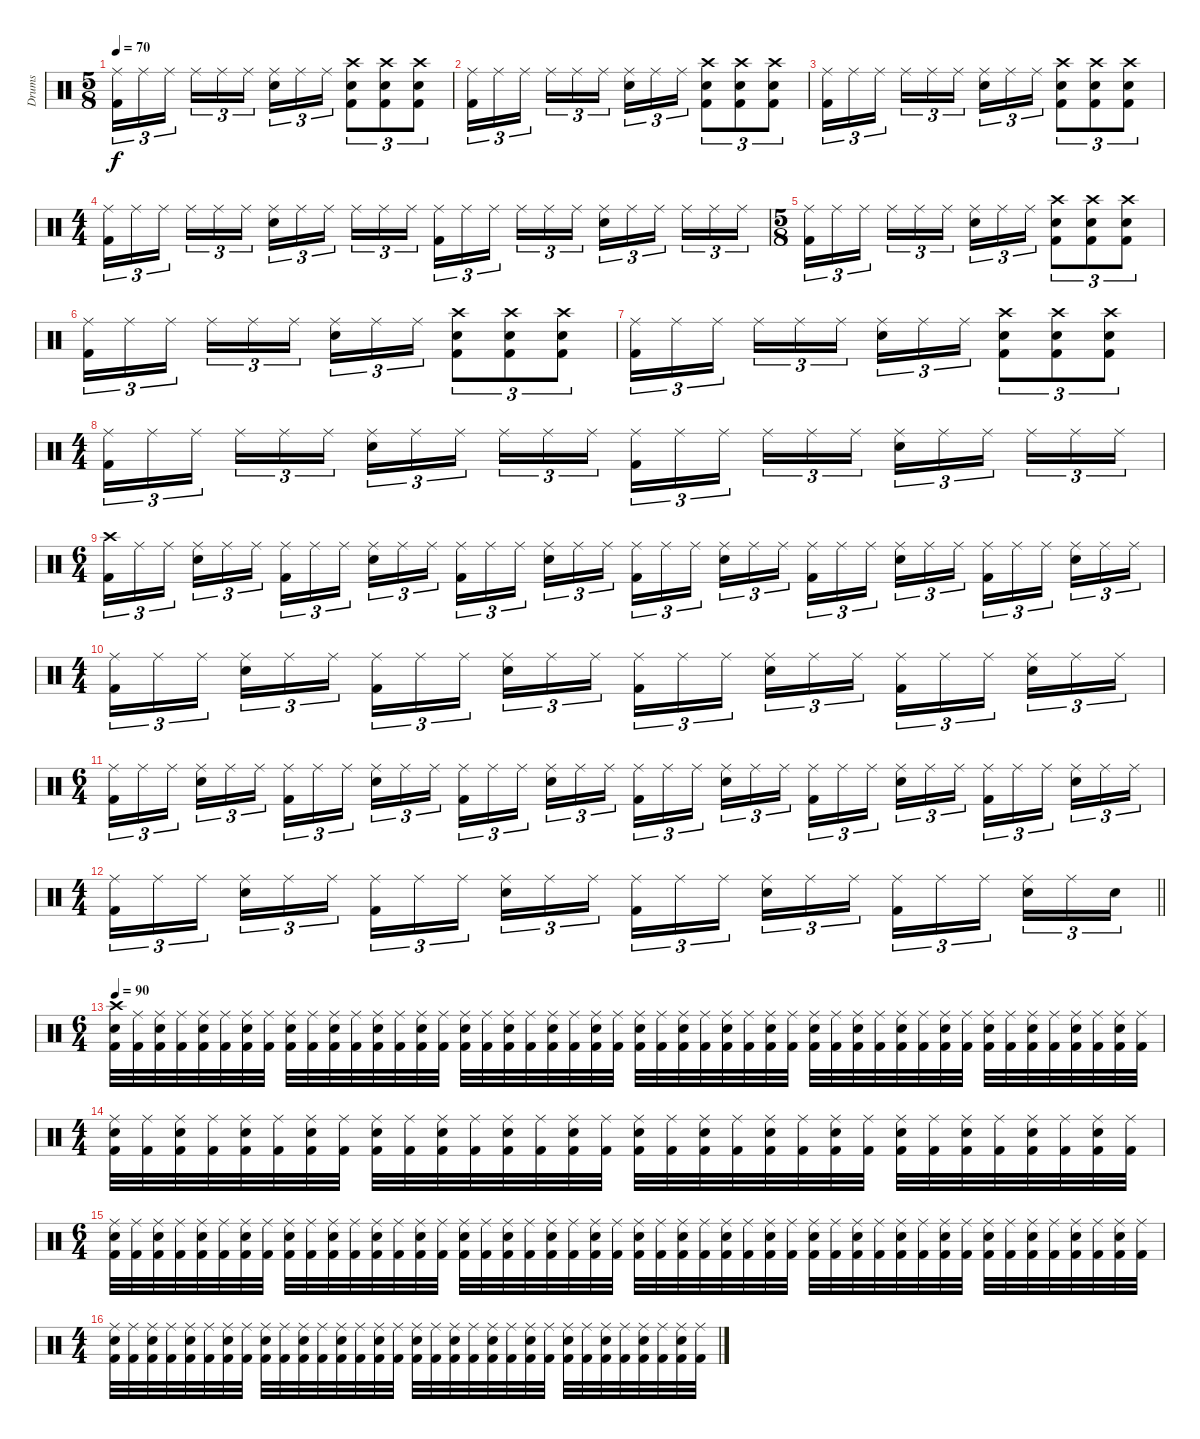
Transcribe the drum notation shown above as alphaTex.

\track ("Drums" "Drums") {instrument percussion}
\staff {score}
\articulation defaults
\ts (5 8)
\tempo 70
\clef neutral
\ks c
("Ride (middle)" "Kick (hit) 2").16{tu (3 2) dy f} "Ride (middle)".16{tu (3 2)} "Ride (middle)".16{tu (3 2)} "Ride (middle)".16{tu (3 2)} "Ride (middle)".16{tu (3 2)} "Ride (middle)".16{tu (3 2)} ("Ride (middle)" "Electric Snare (hit)").16{tu (3 2)} "Ride (middle)".16{tu (3 2)} "Ride (middle)".16{tu (3 2)} ("Crash high (hit)" "Electric Snare (hit)" "Kick (hit) 2").8{tu (3 2)} ("Crash high (hit)" "Electric Snare (hit)" "Kick (hit) 2").8{tu (3 2)} ("Crash high (hit)" "Electric Snare (hit)" "Kick (hit) 2").8{tu (3 2)} |
("Ride (middle)" "Kick (hit) 2").16{tu (3 2)} "Ride (middle)".16{tu (3 2)} "Ride (middle)".16{tu (3 2)} "Ride (middle)".16{tu (3 2)} "Ride (middle)".16{tu (3 2)} "Ride (middle)".16{tu (3 2)} ("Ride (middle)" "Electric Snare (hit)").16{tu (3 2)} "Ride (middle)".16{tu (3 2)} "Ride (middle)".16{tu (3 2)} ("Crash high (hit)" "Electric Snare (hit)" "Kick (hit) 2").8{tu (3 2)} ("Crash high (hit)" "Electric Snare (hit)" "Kick (hit) 2").8{tu (3 2)} ("Crash high (hit)" "Electric Snare (hit)" "Kick (hit) 2").8{tu (3 2)} |
("Ride (middle)" "Kick (hit) 2").16{tu (3 2)} "Ride (middle)".16{tu (3 2)} "Ride (middle)".16{tu (3 2)} "Ride (middle)".16{tu (3 2)} "Ride (middle)".16{tu (3 2)} "Ride (middle)".16{tu (3 2)} ("Ride (middle)" "Electric Snare (hit)").16{tu (3 2)} "Ride (middle)".16{tu (3 2)} "Ride (middle)".16{tu (3 2)} ("Crash high (hit)" "Electric Snare (hit)" "Kick (hit) 2").8{tu (3 2)} ("Crash high (hit)" "Electric Snare (hit)" "Kick (hit) 2").8{tu (3 2)} ("Crash high (hit)" "Electric Snare (hit)" "Kick (hit) 2").8{tu (3 2)} |
\ts (4 4)
("Ride (middle)" "Kick (hit) 2").16{tu (3 2)} "Ride (middle)".16{tu (3 2)} "Ride (middle)".16{tu (3 2)} "Ride (middle)".16{tu (3 2)} "Ride (middle)".16{tu (3 2)} "Ride (middle)".16{tu (3 2)} ("Ride (middle)" "Electric Snare (hit)").16{tu (3 2)} "Ride (middle)".16{tu (3 2)} "Ride (middle)".16{tu (3 2)} "Ride (middle)".16{tu (3 2)} "Ride (middle)".16{tu (3 2)} "Ride (middle)".16{tu (3 2)} ("Ride (middle)" "Kick (hit) 2").16{tu (3 2)} "Ride (middle)".16{tu (3 2)} "Ride (middle)".16{tu (3 2)} "Ride (middle)".16{tu (3 2)} "Ride (middle)".16{tu (3 2)} "Ride (middle)".16{tu (3 2)} ("Ride (middle)" "Electric Snare (hit)").16{tu (3 2)} "Ride (middle)".16{tu (3 2)} "Ride (middle)".16{tu (3 2)} "Ride (middle)".16{tu (3 2)} "Ride (middle)".16{tu (3 2)} "Ride (middle)".16{tu (3 2)} |
\ts (5 8)
("Ride (middle)" "Kick (hit) 2").16{tu (3 2)} "Ride (middle)".16{tu (3 2)} "Ride (middle)".16{tu (3 2)} "Ride (middle)".16{tu (3 2)} "Ride (middle)".16{tu (3 2)} "Ride (middle)".16{tu (3 2)} ("Ride (middle)" "Electric Snare (hit)").16{tu (3 2)} "Ride (middle)".16{tu (3 2)} "Ride (middle)".16{tu (3 2)} ("Crash high (hit)" "Electric Snare (hit)" "Kick (hit) 2").8{tu (3 2)} ("Crash high (hit)" "Electric Snare (hit)" "Kick (hit) 2").8{tu (3 2)} ("Crash high (hit)" "Electric Snare (hit)" "Kick (hit) 2").8{tu (3 2)} |
("Ride (middle)" "Kick (hit) 2").16{tu (3 2)} "Ride (middle)".16{tu (3 2)} "Ride (middle)".16{tu (3 2)} "Ride (middle)".16{tu (3 2)} "Ride (middle)".16{tu (3 2)} "Ride (middle)".16{tu (3 2)} ("Ride (middle)" "Electric Snare (hit)").16{tu (3 2)} "Ride (middle)".16{tu (3 2)} "Ride (middle)".16{tu (3 2)} ("Crash high (hit)" "Electric Snare (hit)" "Kick (hit) 2").8{tu (3 2)} ("Crash high (hit)" "Electric Snare (hit)" "Kick (hit) 2").8{tu (3 2)} ("Crash high (hit)" "Electric Snare (hit)" "Kick (hit) 2").8{tu (3 2)} |
("Ride (middle)" "Kick (hit) 2").16{tu (3 2)} "Ride (middle)".16{tu (3 2)} "Ride (middle)".16{tu (3 2)} "Ride (middle)".16{tu (3 2)} "Ride (middle)".16{tu (3 2)} "Ride (middle)".16{tu (3 2)} ("Ride (middle)" "Electric Snare (hit)").16{tu (3 2)} "Ride (middle)".16{tu (3 2)} "Ride (middle)".16{tu (3 2)} ("Crash high (hit)" "Electric Snare (hit)" "Kick (hit) 2").8{tu (3 2)} ("Crash high (hit)" "Electric Snare (hit)" "Kick (hit) 2").8{tu (3 2)} ("Crash high (hit)" "Electric Snare (hit)" "Kick (hit) 2").8{tu (3 2)} |
\ts (4 4)
("Ride (middle)" "Kick (hit) 2").16{tu (3 2)} "Ride (middle)".16{tu (3 2)} "Ride (middle)".16{tu (3 2)} "Ride (middle)".16{tu (3 2)} "Ride (middle)".16{tu (3 2)} "Ride (middle)".16{tu (3 2)} ("Ride (middle)" "Electric Snare (hit)").16{tu (3 2)} "Ride (middle)".16{tu (3 2)} "Ride (middle)".16{tu (3 2)} "Ride (middle)".16{tu (3 2)} "Ride (middle)".16{tu (3 2)} "Ride (middle)".16{tu (3 2)} ("Ride (middle)" "Kick (hit) 2").16{tu (3 2)} "Ride (middle)".16{tu (3 2)} "Ride (middle)".16{tu (3 2)} "Ride (middle)".16{tu (3 2)} "Ride (middle)".16{tu (3 2)} "Ride (middle)".16{tu (3 2)} ("Ride (middle)" "Electric Snare (hit)").16{tu (3 2)} "Ride (middle)".16{tu (3 2)} "Ride (middle)".16{tu (3 2)} "Ride (middle)".16{tu (3 2)} "Ride (middle)".16{tu (3 2)} "Ride (middle)".16{tu (3 2)} |
\ts (6 4)
("Crash high (hit)" "Kick (hit) 2").16{tu (3 2)} "Ride (middle)".16{tu (3 2)} "Ride (middle)".16{tu (3 2)} ("Ride (middle)" "Electric Snare (hit)").16{tu (3 2)} "Ride (middle)".16{tu (3 2)} "Ride (middle)".16{tu (3 2)} ("Ride (middle)" "Kick (hit) 2").16{tu (3 2)} "Ride (middle)".16{tu (3 2)} "Ride (middle)".16{tu (3 2)} ("Ride (middle)" "Electric Snare (hit)").16{tu (3 2)} "Ride (middle)".16{tu (3 2)} "Ride (middle)".16{tu (3 2)} ("Ride (middle)" "Kick (hit) 2").16{tu (3 2)} "Ride (middle)".16{tu (3 2)} "Ride (middle)".16{tu (3 2)} ("Ride (middle)" "Electric Snare (hit)").16{tu (3 2)} "Ride (middle)".16{tu (3 2)} "Ride (middle)".16{tu (3 2)} ("Ride (middle)" "Kick (hit) 2").16{tu (3 2)} "Ride (middle)".16{tu (3 2)} "Ride (middle)".16{tu (3 2)} ("Ride (middle)" "Electric Snare (hit)").16{tu (3 2)} "Ride (middle)".16{tu (3 2)} "Ride (middle)".16{tu (3 2)} ("Ride (middle)" "Kick (hit) 2").16{tu (3 2)} "Ride (middle)".16{tu (3 2)} "Ride (middle)".16{tu (3 2)} ("Ride (middle)" "Electric Snare (hit)").16{tu (3 2)} "Ride (middle)".16{tu (3 2)} "Ride (middle)".16{tu (3 2)} ("Ride (middle)" "Kick (hit) 2").16{tu (3 2)} "Ride (middle)".16{tu (3 2)} "Ride (middle)".16{tu (3 2)} ("Ride (middle)" "Electric Snare (hit)").16{tu (3 2)} "Ride (middle)".16{tu (3 2)} "Ride (middle)".16{tu (3 2)} |
\ts (4 4)
("Ride (middle)" "Kick (hit) 2").16{tu (3 2)} "Ride (middle)".16{tu (3 2)} "Ride (middle)".16{tu (3 2)} ("Ride (middle)" "Electric Snare (hit)").16{tu (3 2)} "Ride (middle)".16{tu (3 2)} "Ride (middle)".16{tu (3 2)} ("Ride (middle)" "Kick (hit) 2").16{tu (3 2)} "Ride (middle)".16{tu (3 2)} "Ride (middle)".16{tu (3 2)} ("Ride (middle)" "Electric Snare (hit)").16{tu (3 2)} "Ride (middle)".16{tu (3 2)} "Ride (middle)".16{tu (3 2)} ("Ride (middle)" "Kick (hit) 2").16{tu (3 2)} "Ride (middle)".16{tu (3 2)} "Ride (middle)".16{tu (3 2)} ("Ride (middle)" "Electric Snare (hit)").16{tu (3 2)} "Ride (middle)".16{tu (3 2)} "Ride (middle)".16{tu (3 2)} ("Ride (middle)" "Kick (hit) 2").16{tu (3 2)} "Ride (middle)".16{tu (3 2)} "Ride (middle)".16{tu (3 2)} ("Ride (middle)" "Electric Snare (hit)").16{tu (3 2)} "Ride (middle)".16{tu (3 2)} "Ride (middle)".16{tu (3 2)} |
\ts (6 4)
("Ride (middle)" "Kick (hit) 2").16{tu (3 2)} "Ride (middle)".16{tu (3 2)} "Ride (middle)".16{tu (3 2)} ("Ride (middle)" "Electric Snare (hit)").16{tu (3 2)} "Ride (middle)".16{tu (3 2)} "Ride (middle)".16{tu (3 2)} ("Ride (middle)" "Kick (hit) 2").16{tu (3 2)} "Ride (middle)".16{tu (3 2)} "Ride (middle)".16{tu (3 2)} ("Ride (middle)" "Electric Snare (hit)").16{tu (3 2)} "Ride (middle)".16{tu (3 2)} "Ride (middle)".16{tu (3 2)} ("Ride (middle)" "Kick (hit) 2").16{tu (3 2)} "Ride (middle)".16{tu (3 2)} "Ride (middle)".16{tu (3 2)} ("Ride (middle)" "Electric Snare (hit)").16{tu (3 2)} "Ride (middle)".16{tu (3 2)} "Ride (middle)".16{tu (3 2)} ("Ride (middle)" "Kick (hit) 2").16{tu (3 2)} "Ride (middle)".16{tu (3 2)} "Ride (middle)".16{tu (3 2)} ("Ride (middle)" "Electric Snare (hit)").16{tu (3 2)} "Ride (middle)".16{tu (3 2)} "Ride (middle)".16{tu (3 2)} ("Ride (middle)" "Kick (hit) 2").16{tu (3 2)} "Ride (middle)".16{tu (3 2)} "Ride (middle)".16{tu (3 2)} ("Ride (middle)" "Electric Snare (hit)").16{tu (3 2)} "Ride (middle)".16{tu (3 2)} "Ride (middle)".16{tu (3 2)} ("Ride (middle)" "Kick (hit) 2").16{tu (3 2)} "Ride (middle)".16{tu (3 2)} "Ride (middle)".16{tu (3 2)} ("Ride (middle)" "Electric Snare (hit)").16{tu (3 2)} "Ride (middle)".16{tu (3 2)} "Ride (middle)".16{tu (3 2)} |
\ts (4 4)
\barLineRight lightlight
("Ride (middle)" "Kick (hit) 2").16{tu (3 2)} "Ride (middle)".16{tu (3 2)} "Ride (middle)".16{tu (3 2)} ("Ride (middle)" "Electric Snare (hit)").16{tu (3 2)} "Ride (middle)".16{tu (3 2)} "Ride (middle)".16{tu (3 2)} ("Ride (middle)" "Kick (hit) 2").16{tu (3 2)} "Ride (middle)".16{tu (3 2)} "Ride (middle)".16{tu (3 2)} ("Ride (middle)" "Electric Snare (hit)").16{tu (3 2)} "Ride (middle)".16{tu (3 2)} "Ride (middle)".16{tu (3 2)} ("Ride (middle)" "Kick (hit) 2").16{tu (3 2)} "Ride (middle)".16{tu (3 2)} "Ride (middle)".16{tu (3 2)} ("Ride (middle)" "Electric Snare (hit)").16{tu (3 2)} "Ride (middle)".16{tu (3 2)} "Ride (middle)".16{tu (3 2)} ("Ride (middle)" "Kick (hit) 2").16{tu (3 2)} "Ride (middle)".16{tu (3 2)} "Ride (middle)".16{tu (3 2)} ("Ride (middle)" "Electric Snare (hit)").16{tu (3 2)} "Ride (middle)".16{tu (3 2)} "Electric Snare (hit)".16{tu (3 2)} |
\ts (6 4)
\tempo 90
("Crash high (hit)" "Electric Snare (hit)" "Kick (hit) 2").32 ("Ride (middle)" "Kick (hit) 2").32 ("Ride (middle)" "Electric Snare (hit)" "Kick (hit) 2").32 ("Ride (middle)" "Kick (hit) 2").32 ("Ride (middle)" "Electric Snare (hit)" "Kick (hit) 2").32 ("Ride (middle)" "Kick (hit) 2").32 ("Ride (middle)" "Electric Snare (hit)" "Kick (hit) 2").32 ("Ride (middle)" "Kick (hit) 2").32 ("Ride (middle)" "Electric Snare (hit)" "Kick (hit) 2").32 ("Ride (middle)" "Kick (hit) 2").32 ("Ride (middle)" "Electric Snare (hit)" "Kick (hit) 2").32 ("Ride (middle)" "Kick (hit) 2").32 ("Ride (middle)" "Electric Snare (hit)" "Kick (hit) 2").32 ("Ride (middle)" "Kick (hit) 2").32 ("Ride (middle)" "Electric Snare (hit)" "Kick (hit) 2").32 ("Ride (middle)" "Kick (hit) 2").32 ("Ride (middle)" "Electric Snare (hit)" "Kick (hit) 2").32 ("Ride (middle)" "Kick (hit) 2").32 ("Ride (middle)" "Electric Snare (hit)" "Kick (hit) 2").32 ("Ride (middle)" "Kick (hit) 2").32 ("Ride (middle)" "Electric Snare (hit)" "Kick (hit) 2").32 ("Ride (middle)" "Kick (hit) 2").32 ("Ride (middle)" "Electric Snare (hit)" "Kick (hit) 2").32 ("Ride (middle)" "Kick (hit) 2").32 ("Ride (middle)" "Electric Snare (hit)" "Kick (hit) 2").32 ("Ride (middle)" "Kick (hit) 2").32 ("Ride (middle)" "Electric Snare (hit)" "Kick (hit) 2").32 ("Ride (middle)" "Kick (hit) 2").32 ("Ride (middle)" "Electric Snare (hit)" "Kick (hit) 2").32 ("Ride (middle)" "Kick (hit) 2").32 ("Ride (middle)" "Electric Snare (hit)" "Kick (hit) 2").32 ("Ride (middle)" "Kick (hit) 2").32 ("Ride (middle)" "Electric Snare (hit)" "Kick (hit) 2").32 ("Ride (middle)" "Kick (hit) 2").32 ("Ride (middle)" "Electric Snare (hit)" "Kick (hit) 2").32 ("Ride (middle)" "Kick (hit) 2").32 ("Ride (middle)" "Electric Snare (hit)" "Kick (hit) 2").32 ("Ride (middle)" "Kick (hit) 2").32 ("Ride (middle)" "Electric Snare (hit)" "Kick (hit) 2").32 ("Ride (middle)" "Kick (hit) 2").32 ("Ride (middle)" "Electric Snare (hit)" "Kick (hit) 2").32 ("Ride (middle)" "Kick (hit) 2").32 ("Ride (middle)" "Electric Snare (hit)" "Kick (hit) 2").32 ("Ride (middle)" "Kick (hit) 2").32 ("Ride (middle)" "Electric Snare (hit)" "Kick (hit) 2").32 ("Ride (middle)" "Kick (hit) 2").32 ("Ride (middle)" "Electric Snare (hit)" "Kick (hit) 2").32 ("Ride (middle)" "Kick (hit) 2").32 |
\ts (4 4)
("Ride (middle)" "Electric Snare (hit)" "Kick (hit) 2").32 ("Ride (middle)" "Kick (hit) 2").32 ("Ride (middle)" "Electric Snare (hit)" "Kick (hit) 2").32 ("Ride (middle)" "Kick (hit) 2").32 ("Ride (middle)" "Electric Snare (hit)" "Kick (hit) 2").32 ("Ride (middle)" "Kick (hit) 2").32 ("Ride (middle)" "Electric Snare (hit)" "Kick (hit) 2").32 ("Ride (middle)" "Kick (hit) 2").32 ("Ride (middle)" "Electric Snare (hit)" "Kick (hit) 2").32 ("Ride (middle)" "Kick (hit) 2").32 ("Ride (middle)" "Electric Snare (hit)" "Kick (hit) 2").32 ("Ride (middle)" "Kick (hit) 2").32 ("Ride (middle)" "Electric Snare (hit)" "Kick (hit) 2").32 ("Ride (middle)" "Kick (hit) 2").32 ("Ride (middle)" "Electric Snare (hit)" "Kick (hit) 2").32 ("Ride (middle)" "Kick (hit) 2").32 ("Ride (middle)" "Electric Snare (hit)" "Kick (hit) 2").32 ("Ride (middle)" "Kick (hit) 2").32 ("Ride (middle)" "Electric Snare (hit)" "Kick (hit) 2").32 ("Ride (middle)" "Kick (hit) 2").32 ("Ride (middle)" "Electric Snare (hit)" "Kick (hit) 2").32 ("Ride (middle)" "Kick (hit) 2").32 ("Ride (middle)" "Electric Snare (hit)" "Kick (hit) 2").32 ("Ride (middle)" "Kick (hit) 2").32 ("Ride (middle)" "Electric Snare (hit)" "Kick (hit) 2").32 ("Ride (middle)" "Kick (hit) 2").32 ("Ride (middle)" "Electric Snare (hit)" "Kick (hit) 2").32 ("Ride (middle)" "Kick (hit) 2").32 ("Ride (middle)" "Electric Snare (hit)" "Kick (hit) 2").32 ("Ride (middle)" "Kick (hit) 2").32 ("Ride (middle)" "Electric Snare (hit)" "Kick (hit) 2").32 ("Ride (middle)" "Kick (hit) 2").32 |
\ts (6 4)
("Ride (middle)" "Electric Snare (hit)" "Kick (hit) 2").32 ("Ride (middle)" "Kick (hit) 2").32 ("Ride (middle)" "Electric Snare (hit)" "Kick (hit) 2").32 ("Ride (middle)" "Kick (hit) 2").32 ("Ride (middle)" "Electric Snare (hit)" "Kick (hit) 2").32 ("Ride (middle)" "Kick (hit) 2").32 ("Ride (middle)" "Electric Snare (hit)" "Kick (hit) 2").32 ("Ride (middle)" "Kick (hit) 2").32 ("Ride (middle)" "Electric Snare (hit)" "Kick (hit) 2").32 ("Ride (middle)" "Kick (hit) 2").32 ("Ride (middle)" "Electric Snare (hit)" "Kick (hit) 2").32 ("Ride (middle)" "Kick (hit) 2").32 ("Ride (middle)" "Electric Snare (hit)" "Kick (hit) 2").32 ("Ride (middle)" "Kick (hit) 2").32 ("Ride (middle)" "Electric Snare (hit)" "Kick (hit) 2").32 ("Ride (middle)" "Kick (hit) 2").32 ("Ride (middle)" "Electric Snare (hit)" "Kick (hit) 2").32 ("Ride (middle)" "Kick (hit) 2").32 ("Ride (middle)" "Electric Snare (hit)" "Kick (hit) 2").32 ("Ride (middle)" "Kick (hit) 2").32 ("Ride (middle)" "Electric Snare (hit)" "Kick (hit) 2").32 ("Ride (middle)" "Kick (hit) 2").32 ("Ride (middle)" "Electric Snare (hit)" "Kick (hit) 2").32 ("Ride (middle)" "Kick (hit) 2").32 ("Ride (middle)" "Electric Snare (hit)" "Kick (hit) 2").32 ("Ride (middle)" "Kick (hit) 2").32 ("Ride (middle)" "Electric Snare (hit)" "Kick (hit) 2").32 ("Ride (middle)" "Kick (hit) 2").32 ("Ride (middle)" "Electric Snare (hit)" "Kick (hit) 2").32 ("Ride (middle)" "Kick (hit) 2").32 ("Ride (middle)" "Electric Snare (hit)" "Kick (hit) 2").32 ("Ride (middle)" "Kick (hit) 2").32 ("Ride (middle)" "Electric Snare (hit)" "Kick (hit) 2").32 ("Ride (middle)" "Kick (hit) 2").32 ("Ride (middle)" "Electric Snare (hit)" "Kick (hit) 2").32 ("Ride (middle)" "Kick (hit) 2").32 ("Ride (middle)" "Electric Snare (hit)" "Kick (hit) 2").32 ("Ride (middle)" "Kick (hit) 2").32 ("Ride (middle)" "Electric Snare (hit)" "Kick (hit) 2").32 ("Ride (middle)" "Kick (hit) 2").32 ("Ride (middle)" "Electric Snare (hit)" "Kick (hit) 2").32 ("Ride (middle)" "Kick (hit) 2").32 ("Ride (middle)" "Electric Snare (hit)" "Kick (hit) 2").32 ("Ride (middle)" "Kick (hit) 2").32 ("Ride (middle)" "Electric Snare (hit)" "Kick (hit) 2").32 ("Ride (middle)" "Kick (hit) 2").32 ("Ride (middle)" "Electric Snare (hit)" "Kick (hit) 2").32 ("Ride (middle)" "Kick (hit) 2").32 |
\ts (4 4)
("Ride (middle)" "Electric Snare (hit)" "Kick (hit) 2").32 ("Ride (middle)" "Kick (hit) 2").32 ("Ride (middle)" "Electric Snare (hit)" "Kick (hit) 2").32 ("Ride (middle)" "Kick (hit) 2").32 ("Ride (middle)" "Electric Snare (hit)" "Kick (hit) 2").32 ("Ride (middle)" "Kick (hit) 2").32 ("Ride (middle)" "Electric Snare (hit)" "Kick (hit) 2").32 ("Ride (middle)" "Kick (hit) 2").32 ("Ride (middle)" "Electric Snare (hit)" "Kick (hit) 2").32 ("Ride (middle)" "Kick (hit) 2").32 ("Ride (middle)" "Electric Snare (hit)" "Kick (hit) 2").32 ("Ride (middle)" "Kick (hit) 2").32 ("Ride (middle)" "Electric Snare (hit)" "Kick (hit) 2").32 ("Ride (middle)" "Kick (hit) 2").32 ("Ride (middle)" "Electric Snare (hit)" "Kick (hit) 2").32 ("Ride (middle)" "Kick (hit) 2").32 ("Ride (middle)" "Electric Snare (hit)" "Kick (hit) 2").32 ("Ride (middle)" "Kick (hit) 2").32 ("Ride (middle)" "Electric Snare (hit)" "Kick (hit) 2").32 ("Ride (middle)" "Kick (hit) 2").32 ("Ride (middle)" "Electric Snare (hit)" "Kick (hit) 2").32 ("Ride (middle)" "Kick (hit) 2").32 ("Ride (middle)" "Electric Snare (hit)" "Kick (hit) 2").32 ("Ride (middle)" "Kick (hit) 2").32 ("Ride (middle)" "Electric Snare (hit)" "Kick (hit) 2").32 ("Ride (middle)" "Kick (hit) 2").32 ("Ride (middle)" "Electric Snare (hit)" "Kick (hit) 2").32 ("Ride (middle)" "Kick (hit) 2").32 ("Ride (middle)" "Electric Snare (hit)" "Kick (hit) 2").32 ("Ride (middle)" "Kick (hit) 2").32 ("Ride (middle)" "Electric Snare (hit)" "Kick (hit) 2").32 ("Ride (middle)" "Kick (hit) 2").32
